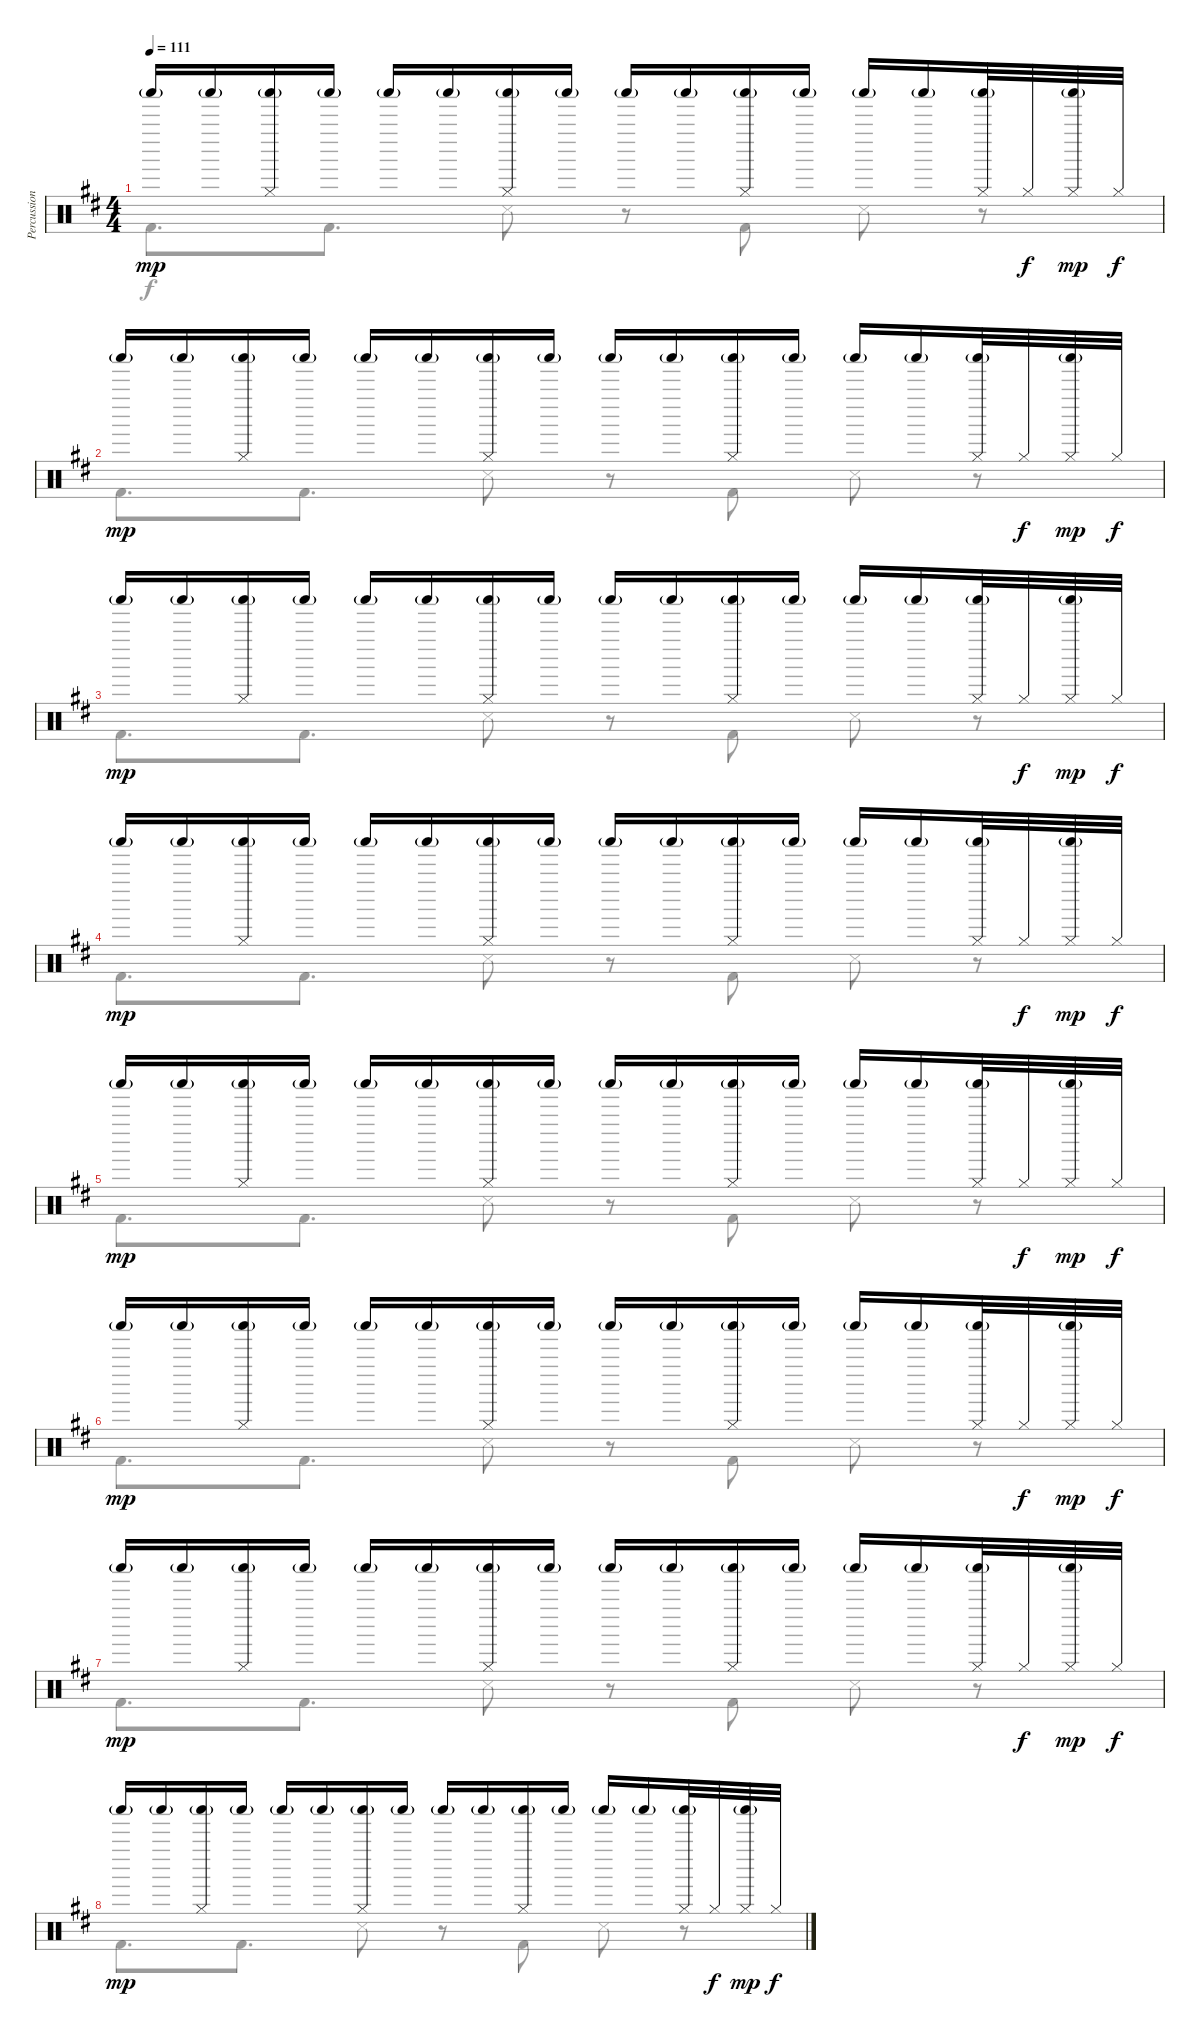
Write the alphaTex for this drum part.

\track ("Percussion" "Percussion") {instrument percussion}
\staff {score}
\articulation defaults
\voice
\ts (4 4)
\tempo 111
\clef neutral
\ks d "Shaker (hit)"{g}.16{dy mp} "Shaker (hit)"{g}.16
("Shaker (hit)"{g} "Hi-Hat (closed)").16 "Shaker (hit)"{g}.16 "Shaker (hit)"{g}.16 "Shaker (hit)"{g}.16 ("Shaker (hit)"{g} "Hi-Hat (closed)").16 "Shaker (hit)"{g}.16 "Shaker (hit)"{g}.16 "Shaker (hit)"{g}.16 ("Shaker (hit)"{g} "Hi-Hat (closed)").16 "Shaker (hit)"{g}.16 "Shaker (hit)"{g}.16 "Shaker (hit)"{g}.16 ("Shaker (hit)"{g} "Hi-Hat (closed)").32 "Hi-Hat (closed)".32{dy f} ("Shaker (hit)"{g} "Hi-Hat (closed)").32{dy mp} "Hi-Hat (closed)".32{dy f} |
"Shaker (hit)"{g}.16{dy mp} "Shaker (hit)"{g}.16 ("Shaker (hit)"{g} "Hi-Hat (closed)").16 "Shaker (hit)"{g}.16 "Shaker (hit)"{g}.16 "Shaker (hit)"{g}.16 ("Shaker (hit)"{g} "Hi-Hat (closed)").16 "Shaker (hit)"{g}.16 "Shaker (hit)"{g}.16 "Shaker (hit)"{g}.16 ("Shaker (hit)"{g} "Hi-Hat (closed)").16 "Shaker (hit)"{g}.16 "Shaker (hit)"{g}.16 "Shaker (hit)"{g}.16 ("Shaker (hit)"{g} "Hi-Hat (closed)").32 "Hi-Hat (closed)".32{dy f} ("Shaker (hit)"{g} "Hi-Hat (closed)").32{dy mp} "Hi-Hat (closed)".32{dy f} |
"Shaker (hit)"{g}.16{dy mp} "Shaker (hit)"{g}.16 ("Shaker (hit)"{g} "Hi-Hat (closed)").16 "Shaker (hit)"{g}.16 "Shaker (hit)"{g}.16 "Shaker (hit)"{g}.16 ("Shaker (hit)"{g} "Hi-Hat (closed)").16 "Shaker (hit)"{g}.16 "Shaker (hit)"{g}.16 "Shaker (hit)"{g}.16 ("Shaker (hit)"{g} "Hi-Hat (closed)").16 "Shaker (hit)"{g}.16 "Shaker (hit)"{g}.16 "Shaker (hit)"{g}.16 ("Shaker (hit)"{g} "Hi-Hat (closed)").32 "Hi-Hat (closed)".32{dy f} ("Shaker (hit)"{g} "Hi-Hat (closed)").32{dy mp} "Hi-Hat (closed)".32{dy f} |
"Shaker (hit)"{g}.16{dy mp} "Shaker (hit)"{g}.16 ("Shaker (hit)"{g} "Hi-Hat (closed)").16 "Shaker (hit)"{g}.16 "Shaker (hit)"{g}.16 "Shaker (hit)"{g}.16 ("Shaker (hit)"{g} "Hi-Hat (closed)").16 "Shaker (hit)"{g}.16 "Shaker (hit)"{g}.16 "Shaker (hit)"{g}.16 ("Shaker (hit)"{g} "Hi-Hat (closed)").16 "Shaker (hit)"{g}.16 "Shaker (hit)"{g}.16 "Shaker (hit)"{g}.16 ("Shaker (hit)"{g} "Hi-Hat (closed)").32 "Hi-Hat (closed)".32{dy f} ("Shaker (hit)"{g} "Hi-Hat (closed)").32{dy mp} "Hi-Hat (closed)".32{dy f} |
"Shaker (hit)"{g}.16{dy mp} "Shaker (hit)"{g}.16 ("Shaker (hit)"{g} "Hi-Hat (closed)").16 "Shaker (hit)"{g}.16 "Shaker (hit)"{g}.16 "Shaker (hit)"{g}.16 ("Shaker (hit)"{g} "Hi-Hat (closed)").16 "Shaker (hit)"{g}.16 "Shaker (hit)"{g}.16 "Shaker (hit)"{g}.16 ("Shaker (hit)"{g} "Hi-Hat (closed)").16 "Shaker (hit)"{g}.16 "Shaker (hit)"{g}.16 "Shaker (hit)"{g}.16 ("Shaker (hit)"{g} "Hi-Hat (closed)").32 "Hi-Hat (closed)".32{dy f} ("Shaker (hit)"{g} "Hi-Hat (closed)").32{dy mp} "Hi-Hat (closed)".32{dy f} |
"Shaker (hit)"{g}.16{dy mp} "Shaker (hit)"{g}.16 ("Shaker (hit)"{g} "Hi-Hat (closed)").16 "Shaker (hit)"{g}.16 "Shaker (hit)"{g}.16 "Shaker (hit)"{g}.16 ("Shaker (hit)"{g} "Hi-Hat (closed)").16 "Shaker (hit)"{g}.16 "Shaker (hit)"{g}.16 "Shaker (hit)"{g}.16 ("Shaker (hit)"{g} "Hi-Hat (closed)").16 "Shaker (hit)"{g}.16 "Shaker (hit)"{g}.16 "Shaker (hit)"{g}.16 ("Shaker (hit)"{g} "Hi-Hat (closed)").32 "Hi-Hat (closed)".32{dy f} ("Shaker (hit)"{g} "Hi-Hat (closed)").32{dy mp} "Hi-Hat (closed)".32{dy f} |
"Shaker (hit)"{g}.16{dy mp} "Shaker (hit)"{g}.16 ("Shaker (hit)"{g} "Hi-Hat (closed)").16 "Shaker (hit)"{g}.16 "Shaker (hit)"{g}.16 "Shaker (hit)"{g}.16 ("Shaker (hit)"{g} "Hi-Hat (closed)").16 "Shaker (hit)"{g}.16 "Shaker (hit)"{g}.16 "Shaker (hit)"{g}.16 ("Shaker (hit)"{g} "Hi-Hat (closed)").16 "Shaker (hit)"{g}.16 "Shaker (hit)"{g}.16 "Shaker (hit)"{g}.16 ("Shaker (hit)"{g} "Hi-Hat (closed)").32 "Hi-Hat (closed)".32{dy f} ("Shaker (hit)"{g} "Hi-Hat (closed)").32{dy mp} "Hi-Hat (closed)".32{dy f} |
"Shaker (hit)"{g}.16{dy mp} "Shaker (hit)"{g}.16 ("Shaker (hit)"{g} "Hi-Hat (closed)").16 "Shaker (hit)"{g}.16 "Shaker (hit)"{g}.16 "Shaker (hit)"{g}.16 ("Shaker (hit)"{g} "Hi-Hat (closed)").16 "Shaker (hit)"{g}.16 "Shaker (hit)"{g}.16 "Shaker (hit)"{g}.16 ("Shaker (hit)"{g} "Hi-Hat (closed)").16 "Shaker (hit)"{g}.16 "Shaker (hit)"{g}.16 "Shaker (hit)"{g}.16 ("Shaker (hit)"{g} "Hi-Hat (closed)").32 "Hi-Hat (closed)".32{dy f} ("Shaker (hit)"{g} "Hi-Hat (closed)").32{dy mp} "Hi-Hat (closed)".32{dy f}
\voice
\clef neutral
\ottava regular
\simile none
\ks d "Kick (hit) 2".8{d dy f} "Kick (hit) 2".8{d} "Snare (side stick) 3".8
r.8 "Kick (hit) 2".8 "Snare (side stick) 3".8 r.8 |
"Kick (hit) 2".8{d} "Kick (hit) 2".8{d} "Snare (side stick) 3".8 r.8 "Kick (hit) 2".8 "Snare (side stick) 3".8 r.8 |
"Kick (hit) 2".8{d} "Kick (hit) 2".8{d} "Snare (side stick) 3".8 r.8 "Kick (hit) 2".8 "Snare (side stick) 3".8 r.8 |
"Kick (hit) 2".8{d} "Kick (hit) 2".8{d} "Snare (side stick) 3".8 r.8 "Kick (hit) 2".8 "Snare (side stick) 3".8 r.8 |
"Kick (hit) 2".8{d} "Kick (hit) 2".8{d} "Snare (side stick) 3".8 r.8 "Kick (hit) 2".8 "Snare (side stick) 3".8 r.8 |
"Kick (hit) 2".8{d} "Kick (hit) 2".8{d} "Snare (side stick) 3".8 r.8 "Kick (hit) 2".8 "Snare (side stick) 3".8 r.8 |
"Kick (hit) 2".8{d} "Kick (hit) 2".8{d} "Snare (side stick) 3".8 r.8 "Kick (hit) 2".8 "Snare (side stick) 3".8 r.8 |
"Kick (hit) 2".8{d} "Kick (hit) 2".8{d} "Snare (side stick) 3".8 r.8 "Kick (hit) 2".8 "Snare (side stick) 3".8 r.8
